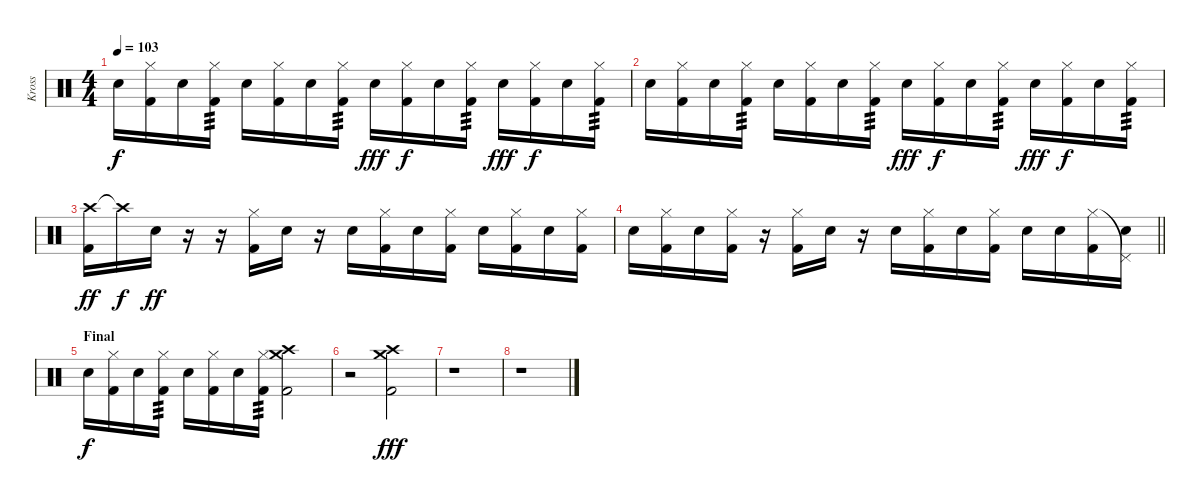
\track ("Kross" "Kross") {instrument percussion}
\staff {score}
\articulation defaults
\ts (4 4)
\tempo 103
\clef neutral
\ks c "Electric Snare (hit)".16{dy f}
("Hi-Hat (closed)" "Kick (hit) 2").16 "Electric Snare (hit)".16 ("Hi-Hat (closed)" "Kick (hit) 2").16{tp 3} "Electric Snare (hit)".16 ("Hi-Hat (closed)" "Kick (hit) 2").16 "Electric Snare (hit)".16 ("Hi-Hat (closed)" "Kick (hit) 2").16{tp 3} "Electric Snare (hit)".16{dy fff} ("Hi-Hat (closed)" "Kick (hit) 2").16{dy f} "Electric Snare (hit)".16 ("Hi-Hat (closed)" "Kick (hit) 2").16{tp 3} "Electric Snare (hit)".16{dy fff} ("Hi-Hat (closed)" "Kick (hit) 2").16{dy f} "Electric Snare (hit)".16 ("Hi-Hat (closed)" "Kick (hit) 2").16{tp 3} |
"Electric Snare (hit)".16 ("Hi-Hat (closed)" "Kick (hit) 2").16 "Electric Snare (hit)".16 ("Hi-Hat (closed)" "Kick (hit) 2").16{tp 3} "Electric Snare (hit)".16 ("Hi-Hat (closed)" "Kick (hit) 2").16 "Electric Snare (hit)".16 ("Hi-Hat (closed)" "Kick (hit) 2").16{tp 3} "Electric Snare (hit)".16{dy fff} ("Hi-Hat (closed)" "Kick (hit) 2").16{dy f} "Electric Snare (hit)".16 ("Hi-Hat (closed)" "Kick (hit) 2").16{tp 3} "Electric Snare (hit)".16{dy fff} ("Hi-Hat (closed)" "Kick (hit) 2").16{dy f} "Electric Snare (hit)".16 ("Hi-Hat (closed)" "Kick (hit) 2").16{tp 3} |
("Crash high (hit)" "Kick (hit) 2").16{dy ff} "Crash high (hit)"{t}.16{dy f} "Electric Snare (hit)".16{dy ff} r.16 r.16 ("Hi-Hat (closed)" "Kick (hit) 2").16 "Electric Snare (hit)".16 r.16 "Electric Snare (hit)".16 ("Hi-Hat (closed)" "Kick (hit) 2").16 "Electric Snare (hit)".16 ("Hi-Hat (closed)" "Kick (hit) 2").16 "Electric Snare (hit)".16 ("Hi-Hat (closed)" "Kick (hit) 2").16 "Electric Snare (hit)".16 ("Hi-Hat (closed)" "Kick (hit) 2").16 |
\barLineRight lightlight "Electric Snare (hit)".16
("Hi-Hat (closed)" "Kick (hit) 2").16 "Electric Snare (hit)".16 ("Hi-Hat (closed)" "Kick (hit) 2").16 r.16 ("Hi-Hat (closed)" "Kick (hit) 2").16 "Electric Snare (hit)".16 r.16 "Electric Snare (hit)".16 ("Hi-Hat (closed)" "Kick (hit) 2").16 "Electric Snare (hit)".16 ("Hi-Hat (closed)" "Kick (hit) 2").16 "Electric Snare (hit)".16 "Electric Snare (hit)".16 ("Hi-Hat (closed)" "Kick (hit) 2").16 ("Pedal Hi-Hat (hit)"{t} "Electric Snare (hit)").16 |
\section ("" "Final")
"Electric Snare (hit)".16{dy f} ("Hi-Hat (closed)" "Kick (hit) 2").16 "Electric Snare (hit)".16 ("Hi-Hat (closed)" "Kick (hit) 2").16{tp 3} "Electric Snare (hit)".16 ("Hi-Hat (closed)" "Kick (hit) 2").16 "Electric Snare (hit)".16 ("Hi-Hat (closed)" "Kick (hit) 2").16{tp 3} ("Crash high (hit)" "Crash medium (hit)" "Kick (hit) 2").2 |
r.2 ("Crash high (hit)" "Crash medium (hit)" "Kick (hit) 2").2{dy fff} |
r.1 |
r.1
